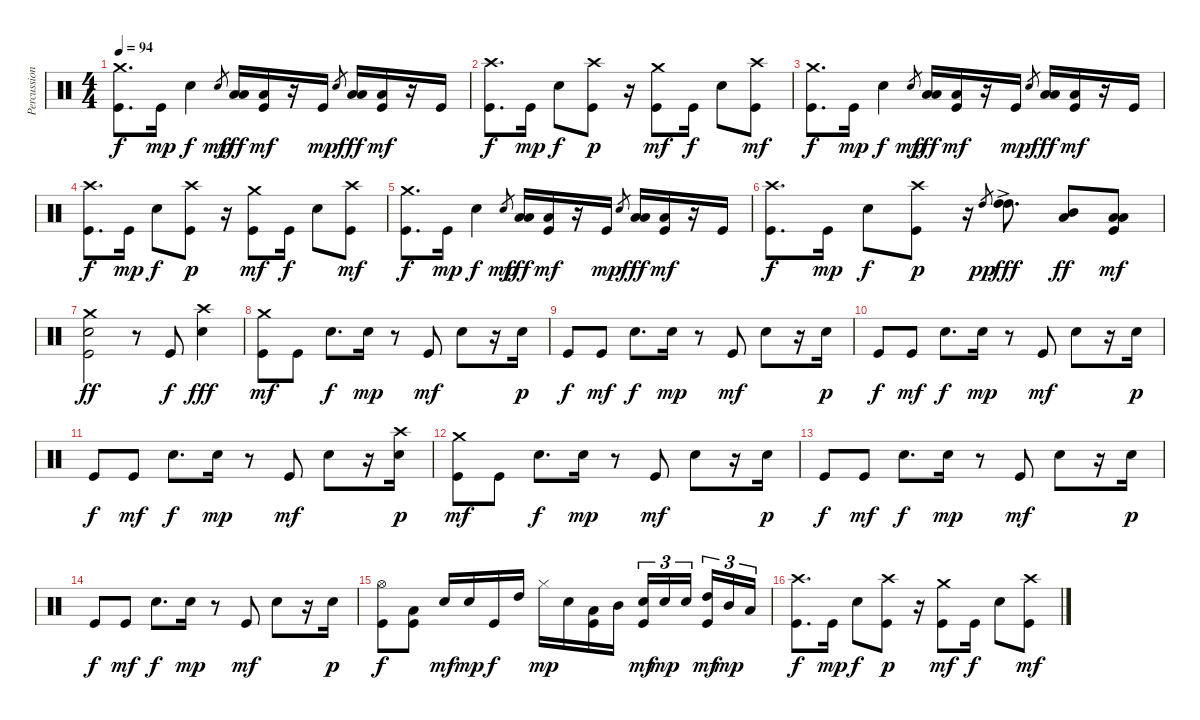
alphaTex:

\track ("Percussions" "Percussion") {instrument percussion}
\staff {score}
\articulation defaults
\ts (4 4)
\tempo 94
\clef neutral
\ks c
("Crash medium (hit)" "Kick (hit)").8{d dy f} "Kick (hit)".16{dy mp} "Snare (hit) 2".4{dy f} "Snare (hit) 2".8{gr dy mp} ("Low Tom (hit)" "Low Floor Tom (hit)").16{dy fff} ("Low Floor Tom (hit)" "Kick (hit)").16{dy mf} r.16 "Kick (hit)".16{dy mp} "Snare (hit) 2".8{gr} ("Low Tom (hit)" "Low Floor Tom (hit)").16{dy fff} ("Low Floor Tom (hit)" "Kick (hit)").16{dy mf} r.16 "Kick (hit)".16 |
("Crash high (hit)" "Kick (hit)").8{d dy f} "Kick (hit)".16{dy mp} "Snare (hit) 2".8{dy f} ("Crash high (hit)" "Kick (hit)").8{dy p} r.16 ("Crash medium (hit)" "Kick (hit)").8{dy mf} "Kick (hit)".16{dy f} "Snare (hit) 2".8 ("Crash high (hit)" "Kick (hit)").8{dy mf} |
("Crash medium (hit)" "Kick (hit)").8{d dy f} "Kick (hit)".16{dy mp} "Snare (hit) 2".4{dy f} "Snare (hit) 2".8{gr dy mp} ("Low Tom (hit)" "Low Floor Tom (hit)").16{dy fff} ("Low Floor Tom (hit)" "Kick (hit)").16{dy mf} r.16 "Kick (hit)".16{dy mp} "Snare (hit) 2".8{gr} ("Low Tom (hit)" "Low Floor Tom (hit)").16{dy fff} ("Low Floor Tom (hit)" "Kick (hit)").16{dy mf} r.16 "Kick (hit)".16 |
("Crash high (hit)" "Kick (hit)").8{d dy f} "Kick (hit)".16{dy mp} "Snare (hit) 2".8{dy f} ("Crash high (hit)" "Kick (hit)").8{dy p} r.16 ("Crash medium (hit)" "Kick (hit)").8{dy mf} "Kick (hit)".16{dy f} "Snare (hit) 2".8 ("Crash high (hit)" "Kick (hit)").8{dy mf} |
("Crash medium (hit)" "Kick (hit)").8{d dy f} "Kick (hit)".16{dy mp} "Snare (hit) 2".4{dy f} "Snare (hit) 2".8{gr dy mp} ("Low Tom (hit)" "Low Floor Tom (hit)").16{dy fff} ("Low Floor Tom (hit)" "Kick (hit)").16{dy mf} r.16 "Kick (hit)".16{dy mp} "Snare (hit) 2".8{gr} ("Low Tom (hit)" "Low Floor Tom (hit)").16{dy fff} ("Low Floor Tom (hit)" "Kick (hit)").16{dy mf} r.16 "Kick (hit)".16 |
("Crash high (hit)" "Kick (hit)").8{d dy f} "Kick (hit)".16{dy mp} "Snare (hit) 2".8{dy f} ("Crash high (hit)" "Kick (hit)").8{dy p} r.16 "High Tom (hit)".8{gr dy pp} ("High Tom (hit)" "High Tom (hit)"{ac}).8{d dy fff} ("Mid Tom (hit)" "Low Tom (hit)").8{dy ff} ("Low Tom (hit)" "Low Floor Tom (hit)" "Kick (hit)").8{dy mf} |
("Crash medium (hit)" "Snare (hit) 2" "Kick (hit)").2{dy ff} r.8 "Kick (hit)".8{dy f} ("Crash high (hit)" "Snare (hit) 2").4{dy fff} |
("Crash medium (hit)" "Kick (hit)").8{dy mf} "Kick (hit)".8 "Snare (hit) 2".8{d dy f} "Snare (hit) 2".16{dy mp} r.8 "Kick (hit)".8{dy mf} "Snare (hit) 2".8 r.16 "Snare (hit) 2".16{dy p} |
"Kick (hit)".8{dy f} "Kick (hit)".8{dy mf} "Snare (hit) 2".8{d dy f} "Snare (hit) 2".16{dy mp} r.8 "Kick (hit)".8{dy mf} "Snare (hit) 2".8 r.16 "Snare (hit) 2".16{dy p} |
"Kick (hit)".8{dy f} "Kick (hit)".8{dy mf} "Snare (hit) 2".8{d dy f} "Snare (hit) 2".16{dy mp} r.8 "Kick (hit)".8{dy mf} "Snare (hit) 2".8 r.16 "Snare (hit) 2".16{dy p} |
"Kick (hit)".8{dy f} "Kick (hit)".8{dy mf} "Snare (hit) 2".8{d dy f} "Snare (hit) 2".16{dy mp} r.8 "Kick (hit)".8{dy mf} "Snare (hit) 2".8 r.16 ("Crash high (hit)" "Snare (hit) 2").16{dy p} |
("Crash medium (hit)" "Kick (hit)").8{dy mf} "Kick (hit)".8 "Snare (hit) 2".8{d dy f} "Snare (hit) 2".16{dy mp} r.8 "Kick (hit)".8{dy mf} "Snare (hit) 2".8 r.16 "Snare (hit) 2".16{dy p} |
"Kick (hit)".8{dy f} "Kick (hit)".8{dy mf} "Snare (hit) 2".8{d dy f} "Snare (hit) 2".16{dy mp} r.8 "Kick (hit)".8{dy mf} "Snare (hit) 2".8 r.16 "Snare (hit) 2".16{dy p} |
"Kick (hit)".8{dy f} "Kick (hit)".8{dy mf} "Snare (hit) 2".8{d dy f} "Snare (hit) 2".16{dy mp} r.8 "Kick (hit)".8{dy mf} "Snare (hit) 2".8 r.16 "Snare (hit) 2".16{dy p} |
("Hi-Hat (open)" "Kick (hit)").8{dy f} ("Low Tom (hit)" "Kick (hit)").8 "Snare (hit) 2".16{dy mf} "Snare (hit) 2".16{dy mp} "Kick (hit)".16{dy f} "High Tom (hit)".16 "Hi-Hat (closed)".16{dy mp} "Snare (hit) 2".16 ("Low Tom (hit)" "Kick (hit)").16 "Mid Tom (hit)".16 ("Snare (hit) 2" "Kick (hit)").16{tu (3 2) dy mf} "Snare (hit) 2".16{tu (3 2) dy mp} "Snare (hit) 2".16{tu (3 2) beam splitsecondary} ("High Tom (hit)" "Kick (hit)").16{tu (3 2) dy mf} "Mid Tom (hit)".16{tu (3 2) dy mp} "Low Tom (hit)".16{tu (3 2)} |
("Crash high (hit)" "Kick (hit)").8{d dy f} "Kick (hit)".16{dy mp} "Snare (hit) 2".8{dy f} ("Crash high (hit)" "Kick (hit)").8{dy p} r.16 ("Crash medium (hit)" "Kick (hit)").8{dy mf} "Kick (hit)".16{dy f} "Snare (hit) 2".8 ("Crash high (hit)" "Kick (hit)").8{dy mf}
